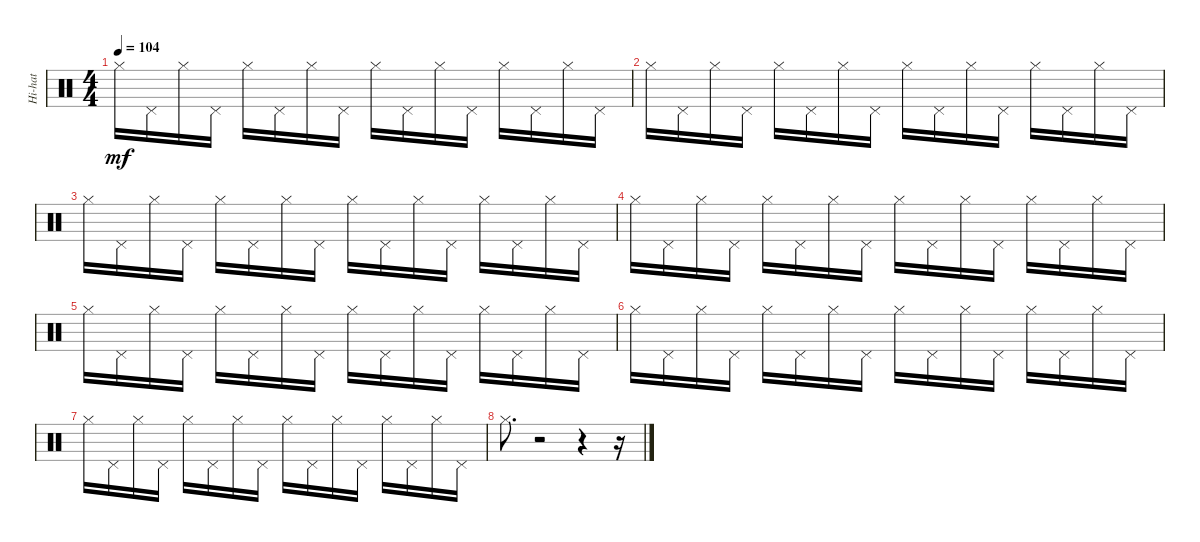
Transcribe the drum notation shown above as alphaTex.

\track ("Hi-hat" "Hi-hat") {instrument percussion}
\staff {score}
\articulation defaults
\ts (4 4)
\tempo 104
\clef neutral
\ks c "Hi-Hat (closed)".16{dy mf} "Pedal Hi-Hat (hit)".16 "Hi-Hat (closed)".16 "Pedal Hi-Hat (hit)".16 "Hi-Hat (closed)".16 "Pedal Hi-Hat (hit)".16 "Hi-Hat (closed)".16 "Pedal Hi-Hat (hit)".16 "Hi-Hat (closed)".16 "Pedal Hi-Hat (hit)".16 "Hi-Hat (closed)".16 "Pedal Hi-Hat (hit)".16 "Hi-Hat (closed)".16 "Pedal Hi-Hat (hit)".16 "Hi-Hat (closed)".16 "Pedal Hi-Hat (hit)".16
|
"Hi-Hat (closed)".16 "Pedal Hi-Hat (hit)".16 "Hi-Hat (closed)".16 "Pedal Hi-Hat (hit)".16 "Hi-Hat (closed)".16 "Pedal Hi-Hat (hit)".16 "Hi-Hat (closed)".16 "Pedal Hi-Hat (hit)".16 "Hi-Hat (closed)".16 "Pedal Hi-Hat (hit)".16 "Hi-Hat (closed)".16 "Pedal Hi-Hat (hit)".16 "Hi-Hat (closed)".16 "Pedal Hi-Hat (hit)".16 "Hi-Hat (closed)".16 "Pedal Hi-Hat (hit)".16 |
"Hi-Hat (closed)".16 "Pedal Hi-Hat (hit)".16 "Hi-Hat (closed)".16 "Pedal Hi-Hat (hit)".16 "Hi-Hat (closed)".16 "Pedal Hi-Hat (hit)".16 "Hi-Hat (closed)".16 "Pedal Hi-Hat (hit)".16 "Hi-Hat (closed)".16 "Pedal Hi-Hat (hit)".16 "Hi-Hat (closed)".16 "Pedal Hi-Hat (hit)".16 "Hi-Hat (closed)".16 "Pedal Hi-Hat (hit)".16 "Hi-Hat (closed)".16 "Pedal Hi-Hat (hit)".16 |
"Hi-Hat (closed)".16 "Pedal Hi-Hat (hit)".16 "Hi-Hat (closed)".16 "Pedal Hi-Hat (hit)".16 "Hi-Hat (closed)".16 "Pedal Hi-Hat (hit)".16 "Hi-Hat (closed)".16 "Pedal Hi-Hat (hit)".16 "Hi-Hat (closed)".16 "Pedal Hi-Hat (hit)".16 "Hi-Hat (closed)".16 "Pedal Hi-Hat (hit)".16 "Hi-Hat (closed)".16 "Pedal Hi-Hat (hit)".16 "Hi-Hat (closed)".16 "Pedal Hi-Hat (hit)".16 |
"Hi-Hat (closed)".16 "Pedal Hi-Hat (hit)".16 "Hi-Hat (closed)".16 "Pedal Hi-Hat (hit)".16 "Hi-Hat (closed)".16 "Pedal Hi-Hat (hit)".16 "Hi-Hat (closed)".16 "Pedal Hi-Hat (hit)".16 "Hi-Hat (closed)".16 "Pedal Hi-Hat (hit)".16 "Hi-Hat (closed)".16 "Pedal Hi-Hat (hit)".16 "Hi-Hat (closed)".16 "Pedal Hi-Hat (hit)".16 "Hi-Hat (closed)".16 "Pedal Hi-Hat (hit)".16 |
"Hi-Hat (closed)".16 "Pedal Hi-Hat (hit)".16 "Hi-Hat (closed)".16 "Pedal Hi-Hat (hit)".16 "Hi-Hat (closed)".16 "Pedal Hi-Hat (hit)".16 "Hi-Hat (closed)".16 "Pedal Hi-Hat (hit)".16 "Hi-Hat (closed)".16 "Pedal Hi-Hat (hit)".16 "Hi-Hat (closed)".16 "Pedal Hi-Hat (hit)".16 "Hi-Hat (closed)".16 "Pedal Hi-Hat (hit)".16 "Hi-Hat (closed)".16 "Pedal Hi-Hat (hit)".16 |
"Hi-Hat (closed)".16 "Pedal Hi-Hat (hit)".16 "Hi-Hat (closed)".16 "Pedal Hi-Hat (hit)".16 "Hi-Hat (closed)".16 "Pedal Hi-Hat (hit)".16 "Hi-Hat (closed)".16 "Pedal Hi-Hat (hit)".16 "Hi-Hat (closed)".16 "Pedal Hi-Hat (hit)".16 "Hi-Hat (closed)".16 "Pedal Hi-Hat (hit)".16 "Hi-Hat (closed)".16 "Pedal Hi-Hat (hit)".16 "Hi-Hat (closed)".16 "Pedal Hi-Hat (hit)".16 |
"Hi-Hat (closed)".8{d} r.2 r.4 r.16
